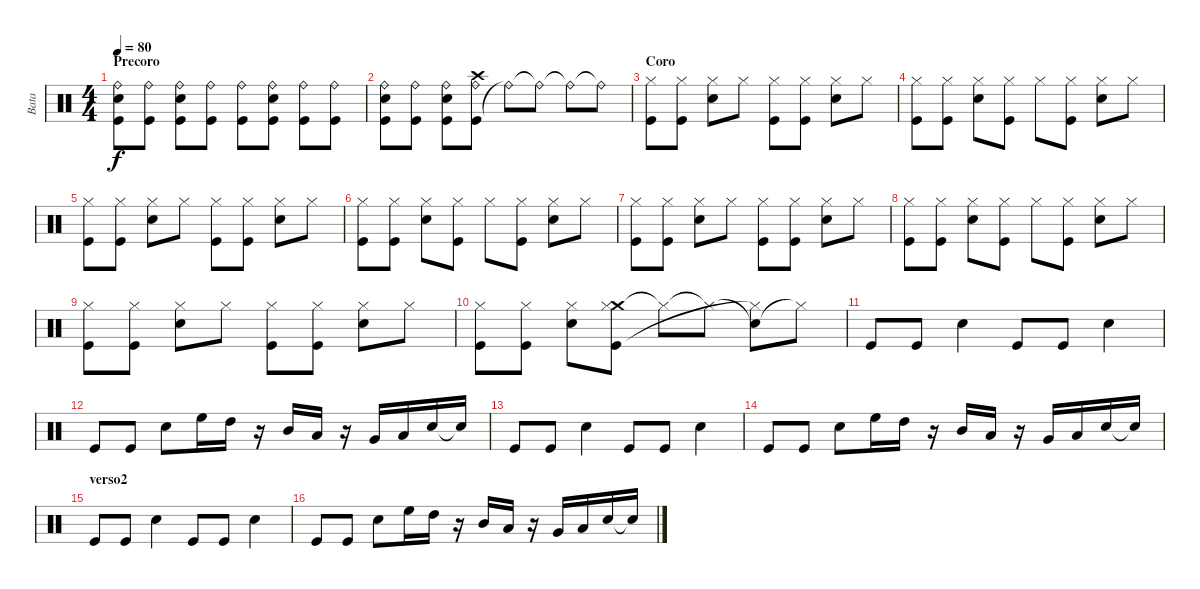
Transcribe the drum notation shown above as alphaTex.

\track ("Bata" "Bata") {instrument percussion}
\staff {score}
\articulation defaults
\ts (4 4)
\section ("" "Precoro")
\tempo 80
\clef neutral
\ks c
("Kick (hit)" "Snare (hit) 2" "Ride (bell)").8{dy f} ("Kick (hit)" "Ride (bell)").8 ("Kick (hit)" "Snare (hit) 2" "Ride (bell)").8 ("Kick (hit)" "Ride (bell)").8 ("Kick (hit)" "Ride (bell)").8 ("Kick (hit)" "Snare (hit) 2" "Ride (bell)").8 ("Kick (hit)" "Ride (bell)").8 ("Kick (hit)" "Ride (bell)").8 |
("Kick (hit)" "Snare (hit) 2" "Ride (bell)").8 ("Kick (hit)" "Ride (bell)").8 ("Kick (hit)" "Snare (hit) 2" "Ride (bell)").8 ("Kick (hit)" "Crash high (hit)" "Ride (bell)").8 "Ride (bell)"{t}.8 "Ride (bell)"{t}.8 "Ride (bell)"{t}.8 "Ride (bell)"{t}.8 |
\section ("" "Coro")
("Kick (hit)" "Hi-Hat (closed)").8 ("Kick (hit)" "Hi-Hat (closed)").8 ("Snare (hit) 2" "Hi-Hat (closed)").8 "Hi-Hat (closed)".8 ("Kick (hit)" "Hi-Hat (closed)").8 ("Kick (hit)" "Hi-Hat (closed)").8 ("Snare (hit) 2" "Hi-Hat (closed)").8 "Hi-Hat (closed)".8 |
("Kick (hit)" "Hi-Hat (closed)").8 ("Kick (hit)" "Hi-Hat (closed)").8 ("Snare (hit) 2" "Hi-Hat (closed)").8 ("Kick (hit)" "Hi-Hat (closed)").8 "Hi-Hat (closed)".8 ("Kick (hit)" "Hi-Hat (closed)").8 ("Snare (hit) 2" "Hi-Hat (closed)").8 "Hi-Hat (closed)".8 |
("Kick (hit)" "Hi-Hat (closed)").8 ("Kick (hit)" "Hi-Hat (closed)").8 ("Snare (hit) 2" "Hi-Hat (closed)").8 "Hi-Hat (closed)".8 ("Kick (hit)" "Hi-Hat (closed)").8 ("Kick (hit)" "Hi-Hat (closed)").8 ("Snare (hit) 2" "Hi-Hat (closed)").8 "Hi-Hat (closed)".8 |
("Kick (hit)" "Hi-Hat (closed)").8 ("Kick (hit)" "Hi-Hat (closed)").8 ("Snare (hit) 2" "Hi-Hat (closed)").8 ("Kick (hit)" "Hi-Hat (closed)").8 "Hi-Hat (closed)".8 ("Kick (hit)" "Hi-Hat (closed)").8 ("Snare (hit) 2" "Hi-Hat (closed)").8 "Hi-Hat (closed)".8 |
("Kick (hit)" "Hi-Hat (closed)").8 ("Kick (hit)" "Hi-Hat (closed)").8 ("Snare (hit) 2" "Hi-Hat (closed)").8 "Hi-Hat (closed)".8 ("Kick (hit)" "Hi-Hat (closed)").8 ("Kick (hit)" "Hi-Hat (closed)").8 ("Snare (hit) 2" "Hi-Hat (closed)").8 "Hi-Hat (closed)".8 |
("Kick (hit)" "Hi-Hat (closed)").8 ("Kick (hit)" "Hi-Hat (closed)").8 ("Snare (hit) 2" "Hi-Hat (closed)").8 ("Kick (hit)" "Hi-Hat (closed)").8 "Hi-Hat (closed)".8 ("Kick (hit)" "Hi-Hat (closed)").8 ("Snare (hit) 2" "Hi-Hat (closed)").8 "Hi-Hat (closed)".8 |
("Kick (hit)" "Hi-Hat (closed)").8 ("Kick (hit)" "Hi-Hat (closed)").8 ("Snare (hit) 2" "Hi-Hat (closed)").8 "Hi-Hat (closed)".8 ("Kick (hit)" "Hi-Hat (closed)").8 ("Kick (hit)" "Hi-Hat (closed)").8 ("Snare (hit) 2" "Hi-Hat (closed)").8 "Hi-Hat (closed)".8 |
("Kick (hit)" "Hi-Hat (closed)").8 ("Kick (hit)" "Hi-Hat (closed)").8 ("Snare (hit) 2" "Hi-Hat (closed)").8 ("Crash medium (hit)" "Kick (hit)" "Hi-Hat (closed)").8 "Hi-Hat (closed)"{t}.8 "Hi-Hat (closed)"{t}.8 ("Snare (hit) 2"{t} "Hi-Hat (closed)"{t}).8 "Hi-Hat (closed)"{t}.8 |
"Kick (hit)".8 "Kick (hit)".8 "Snare (hit) 2".4 "Kick (hit)".8 "Kick (hit)".8 "Snare (hit) 2".4 |
"Kick (hit)".8 "Kick (hit)".8 "Snare (hit) 2".8 "High Floor Tom (hit)".16 "High Tom (hit)".16 r.16 "Mid Tom (hit)".16 "Low Tom (hit)".16 r.16 "Very Low Tom (hit)".16 "Low Floor Tom (hit)".16 "Snare (hit) 2".16 "Snare (hit)"{t}.16 |
"Kick (hit)".8 "Kick (hit)".8 "Snare (hit) 2".4 "Kick (hit)".8 "Kick (hit)".8 "Snare (hit) 2".4 |
"Kick (hit)".8 "Kick (hit)".8 "Snare (hit) 2".8 "High Floor Tom (hit)".16 "High Tom (hit)".16 r.16 "Mid Tom (hit)".16 "Low Tom (hit)".16 r.16 "Very Low Tom (hit)".16 "Low Floor Tom (hit)".16 "Snare (hit) 2".16 "Snare (hit)"{t}.16 |
\section ("" "verso2")
"Kick (hit)".8 "Kick (hit)".8 "Snare (hit) 2".4 "Kick (hit)".8 "Kick (hit)".8 "Snare (hit) 2".4 |
"Kick (hit)".8 "Kick (hit)".8 "Snare (hit) 2".8 "High Floor Tom (hit)".16 "High Tom (hit)".16 r.16 "Mid Tom (hit)".16 "Low Tom (hit)".16 r.16 "Very Low Tom (hit)".16 "Low Floor Tom (hit)".16 "Snare (hit) 2".16 "Snare (hit)"{t}.16
